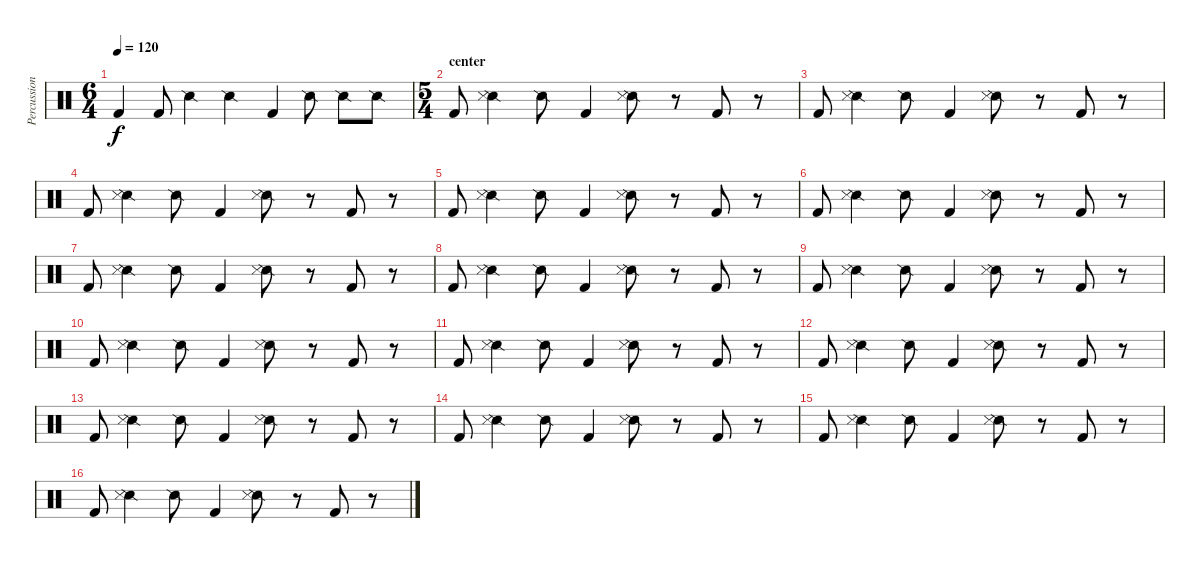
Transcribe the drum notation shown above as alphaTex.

\track ("Percussions" "Percussion") {instrument percussion}
\staff {score}
\articulation defaults
\ts (6 4)
\tempo 120
\clef neutral
\ks c "Kick (hit) 2".4{dy f} "Kick (hit) 2".8 "Snare (side stick) 2".4 "Snare (side stick) 2".4 "Kick (hit) 2".4 "Snare (side stick) 2".8 "Snare (side stick) 2".8 "Snare (side stick) 2".8
|
\ts (5 4)
\section ("" "center")
"Kick (hit) 2".8 ("Snare (side stick) 2" "Metronome (hit)").4 "Snare (side stick) 2".8 "Kick (hit) 2".4 ("Snare (side stick) 2" "Metronome (hit)").8 r.8 "Kick (hit) 2".8 r.8 |
"Kick (hit) 2".8 ("Snare (side stick) 2" "Metronome (hit)").4 "Snare (side stick) 2".8 "Kick (hit) 2".4 ("Snare (side stick) 2" "Metronome (hit)").8 r.8 "Kick (hit) 2".8 r.8 |
"Kick (hit) 2".8 ("Snare (side stick) 2" "Metronome (hit)").4 "Snare (side stick) 2".8 "Kick (hit) 2".4 ("Snare (side stick) 2" "Metronome (hit)").8 r.8 "Kick (hit) 2".8 r.8 |
"Kick (hit) 2".8 ("Snare (side stick) 2" "Metronome (hit)").4 "Snare (side stick) 2".8 "Kick (hit) 2".4 ("Snare (side stick) 2" "Metronome (hit)").8 r.8 "Kick (hit) 2".8 r.8 |
"Kick (hit) 2".8 ("Snare (side stick) 2" "Metronome (hit)").4 "Snare (side stick) 2".8 "Kick (hit) 2".4 ("Snare (side stick) 2" "Metronome (hit)").8 r.8 "Kick (hit) 2".8 r.8 |
"Kick (hit) 2".8 ("Snare (side stick) 2" "Metronome (hit)").4 "Snare (side stick) 2".8 "Kick (hit) 2".4 ("Snare (side stick) 2" "Metronome (hit)").8 r.8 "Kick (hit) 2".8 r.8 |
"Kick (hit) 2".8 ("Snare (side stick) 2" "Metronome (hit)").4 "Snare (side stick) 2".8 "Kick (hit) 2".4 ("Snare (side stick) 2" "Metronome (hit)").8 r.8 "Kick (hit) 2".8 r.8 |
"Kick (hit) 2".8 ("Snare (side stick) 2" "Metronome (hit)").4 "Snare (side stick) 2".8 "Kick (hit) 2".4 ("Snare (side stick) 2" "Metronome (hit)").8 r.8 "Kick (hit) 2".8 r.8 |
"Kick (hit) 2".8 ("Snare (side stick) 2" "Metronome (hit)").4 "Snare (side stick) 2".8 "Kick (hit) 2".4 ("Snare (side stick) 2" "Metronome (hit)").8 r.8 "Kick (hit) 2".8 r.8 |
"Kick (hit) 2".8 ("Snare (side stick) 2" "Metronome (hit)").4 "Snare (side stick) 2".8 "Kick (hit) 2".4 ("Snare (side stick) 2" "Metronome (hit)").8 r.8 "Kick (hit) 2".8 r.8 |
"Kick (hit) 2".8 ("Snare (side stick) 2" "Metronome (hit)").4 "Snare (side stick) 2".8 "Kick (hit) 2".4 ("Snare (side stick) 2" "Metronome (hit)").8 r.8 "Kick (hit) 2".8 r.8 |
"Kick (hit) 2".8 ("Snare (side stick) 2" "Metronome (hit)").4 "Snare (side stick) 2".8 "Kick (hit) 2".4 ("Snare (side stick) 2" "Metronome (hit)").8 r.8 "Kick (hit) 2".8 r.8 |
"Kick (hit) 2".8 ("Snare (side stick) 2" "Metronome (hit)").4 "Snare (side stick) 2".8 "Kick (hit) 2".4 ("Snare (side stick) 2" "Metronome (hit)").8 r.8 "Kick (hit) 2".8 r.8 |
"Kick (hit) 2".8 ("Snare (side stick) 2" "Metronome (hit)").4 "Snare (side stick) 2".8 "Kick (hit) 2".4 ("Snare (side stick) 2" "Metronome (hit)").8 r.8 "Kick (hit) 2".8 r.8 |
"Kick (hit) 2".8 ("Snare (side stick) 2" "Metronome (hit)").4 "Snare (side stick) 2".8 "Kick (hit) 2".4 ("Snare (side stick) 2" "Metronome (hit)").8 r.8 "Kick (hit) 2".8 r.8
